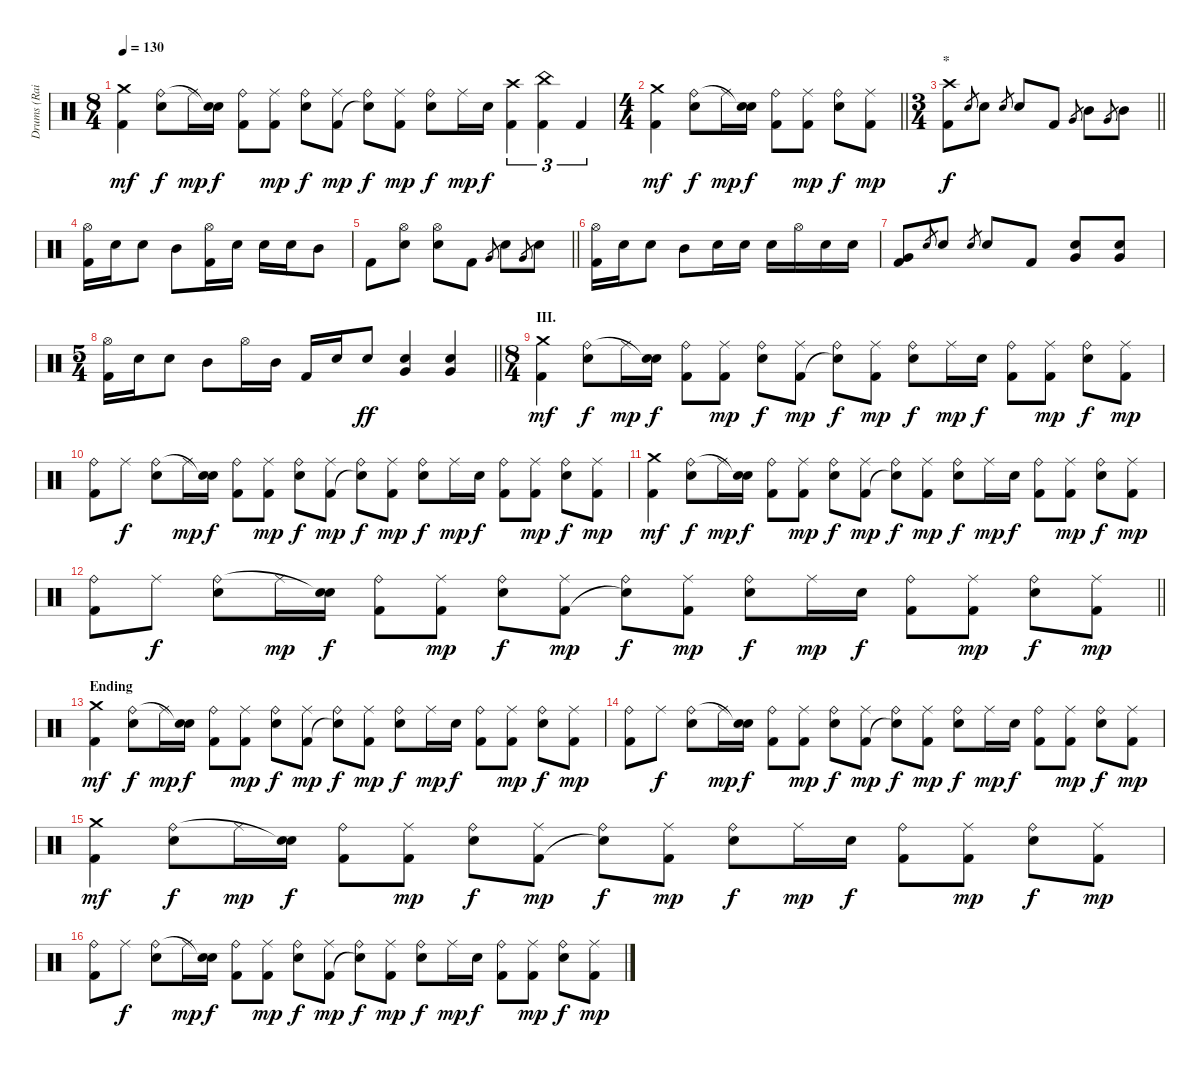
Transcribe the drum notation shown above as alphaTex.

\track ("Drums (Raimund)" "Drums (Rai") {instrument percussion}
\staff {score}
\articulation defaults
\ts (8 4)
\tempo 130
\clef neutral
\ks c
("Crash medium (hit)" "Kick (hit) 2").4{dy mf} ("Snare (hit) 2" "Ride (bell)").8{dy f} "Ride (middle)".16{dy mp} ("Snare (hit) 2" "Snare (hit)"{t}).16{dy f} ("Ride (bell)" "Kick (hit) 2").8 ("Ride (middle)" "Kick (hit) 2").8{dy mp} ("Snare (hit) 2" "Ride (bell)").8{dy f} ("Ride (middle)" "Kick (hit) 2").8{dy mp} ("Ride (bell)" "Snare (hit)"{t}).8{dy f} ("Ride (middle)" "Kick (hit) 2").8{dy mp} ("Snare (hit) 2" "Ride (bell)").8{dy f} "Ride (middle)".16{dy mp} "Snare (hit) 2".16{dy f} ("Crash high (hit)" "Kick (hit) 2").4{tu (3 2)} ("China (hit)" "Kick (hit) 2").4{tu (3 2)} "Kick (hit) 2".4{tu (3 2)} |
\ts (4 4)
\barLineRight lightlight
("Crash medium (hit)" "Kick (hit) 2").4{dy mf} ("Snare (hit) 2" "Ride (bell)").8{dy f} "Ride (middle)".16{dy mp} ("Snare (hit) 2" "Snare (hit)"{t}).16{dy f} ("Ride (bell)" "Kick (hit) 2").8 ("Ride (middle)" "Kick (hit) 2").8{dy mp} ("Snare (hit) 2" "Ride (bell)").8{dy f} ("Ride (middle)" "Kick (hit) 2").8{dy mp} |
\ts (3 4)
\section ("" "*")
\barLineRight lightlight
("Crash high (hit)" "Kick (hit) 2").8{dy f} "Snare (hit) 2".8{gr} "Snare (hit) 2".8 "Snare (hit) 2".8{gr} "Snare (hit) 2".8 "Kick (hit) 2".8 "Very Low Tom (hit)".8{gr} "Mid Tom (hit)".8 "Very Low Tom (hit)".8{gr} "Mid Tom (hit)".8 |
("Hi-Hat (open)" "Kick (hit) 2").16 "Snare (hit) 2".16 "Snare (hit) 2".8 "Mid Tom (hit)".8 ("Hi-Hat (open)" "Kick (hit) 2").16 "Snare (hit) 2".16 "Snare (hit) 2".16 "Snare (hit) 2".16 "Mid Tom (hit)".8 |
\barLineRight lightlight "Kick (hit) 2".8
("Snare (hit) 2" "Hi-Hat (open)").8 ("Snare (hit) 2" "Hi-Hat (open)").8 "Kick (hit) 2".8 "Very Low Tom (hit)".8{gr} "Snare (hit) 2".8 "Very Low Tom (hit)".8{gr} "Snare (hit) 2".8 |
("Hi-Hat (open)" "Kick (hit) 2").16 "Snare (hit) 2".16 "Snare (hit) 2".8 "Mid Tom (hit)".8 "Snare (hit) 2".16 "Snare (hit) 2".16 "Snare (hit) 2".16 "Hi-Hat (open)".16 "Snare (hit) 2".16 "Snare (hit) 2".16 |
("Very Low Tom (hit)" "Kick (hit) 2").8 "Snare (hit) 2".8{gr} "Snare (hit) 2".8 "Snare (hit) 2".8{gr} "Snare (hit) 2".8 "Kick (hit) 2".8 ("Snare (hit) 2" "Very Low Tom (hit)").8 ("Snare (hit) 2" "Very Low Tom (hit)").8 |
\ts (5 4)
\barLineRight lightlight
("Hi-Hat (open)" "Kick (hit) 2").16 "Snare (hit) 2".16 "Snare (hit) 2".8 "Mid Tom (hit)".8 "Hi-Hat (open)".16 "Mid Tom (hit)".16 "Kick (hit) 2".16 "Snare (hit) 2".16 "Snare (hit) 2".8{dy ff} ("Snare (hit) 2" "Very Low Tom (hit)").4 ("Snare (hit) 2" "Very Low Tom (hit)").4 |
\ts (8 4)
\section ("" "III.")
("Crash medium (hit)" "Kick (hit) 2").4{dy mf} ("Snare (hit) 2" "Ride (bell)").8{dy f} "Ride (middle)".16{dy mp} ("Snare (hit) 2" "Snare (hit)"{t}).16{dy f} ("Ride (bell)" "Kick (hit) 2").8 ("Ride (middle)" "Kick (hit) 2").8{dy mp} ("Snare (hit) 2" "Ride (bell)").8{dy f} ("Ride (middle)" "Kick (hit) 2").8{dy mp} ("Ride (bell)" "Snare (hit)"{t}).8{dy f} ("Ride (middle)" "Kick (hit) 2").8{dy mp} ("Snare (hit) 2" "Ride (bell)").8{dy f} "Ride (middle)".16{dy mp} "Snare (hit) 2".16{dy f} ("Ride (bell)" "Kick (hit) 2").8 ("Ride (middle)" "Kick (hit) 2").8{dy mp} ("Snare (hit) 2" "Ride (bell)").8{dy f} ("Ride (middle)" "Kick (hit) 2").8{dy mp} |
("Ride (bell)" "Kick (hit) 2").8 "Ride (middle)".8{dy f} ("Snare (hit) 2" "Ride (bell)").8 "Ride (middle)".16{dy mp} ("Snare (hit) 2" "Snare (hit)"{t}).16{dy f} ("Ride (bell)" "Kick (hit) 2").8 ("Ride (middle)" "Kick (hit) 2").8{dy mp} ("Snare (hit) 2" "Ride (bell)").8{dy f} ("Ride (middle)" "Kick (hit) 2").8{dy mp} ("Ride (bell)" "Snare (hit)"{t}).8{dy f} ("Ride (middle)" "Kick (hit) 2").8{dy mp} ("Snare (hit) 2" "Ride (bell)").8{dy f} "Ride (middle)".16{dy mp} "Snare (hit) 2".16{dy f} ("Ride (bell)" "Kick (hit) 2").8 ("Ride (middle)" "Kick (hit) 2").8{dy mp} ("Snare (hit) 2" "Ride (bell)").8{dy f} ("Ride (middle)" "Kick (hit) 2").8{dy mp} |
("Crash medium (hit)" "Kick (hit) 2").4{dy mf} ("Snare (hit) 2" "Ride (bell)").8{dy f} "Ride (middle)".16{dy mp} ("Snare (hit) 2" "Snare (hit)"{t}).16{dy f} ("Ride (bell)" "Kick (hit) 2").8 ("Ride (middle)" "Kick (hit) 2").8{dy mp} ("Snare (hit) 2" "Ride (bell)").8{dy f} ("Ride (middle)" "Kick (hit) 2").8{dy mp} ("Ride (bell)" "Snare (hit)"{t}).8{dy f} ("Ride (middle)" "Kick (hit) 2").8{dy mp} ("Snare (hit) 2" "Ride (bell)").8{dy f} "Ride (middle)".16{dy mp} "Snare (hit) 2".16{dy f} ("Ride (bell)" "Kick (hit) 2").8 ("Ride (middle)" "Kick (hit) 2").8{dy mp} ("Snare (hit) 2" "Ride (bell)").8{dy f} ("Ride (middle)" "Kick (hit) 2").8{dy mp} |
\barLineRight lightlight
("Ride (bell)" "Kick (hit) 2").8 "Ride (middle)".8{dy f} ("Snare (hit) 2" "Ride (bell)").8 "Ride (middle)".16{dy mp} ("Snare (hit) 2" "Snare (hit)"{t}).16{dy f} ("Ride (bell)" "Kick (hit) 2").8 ("Ride (middle)" "Kick (hit) 2").8{dy mp} ("Snare (hit) 2" "Ride (bell)").8{dy f} ("Ride (middle)" "Kick (hit) 2").8{dy mp} ("Ride (bell)" "Snare (hit)"{t}).8{dy f} ("Ride (middle)" "Kick (hit) 2").8{dy mp} ("Snare (hit) 2" "Ride (bell)").8{dy f} "Ride (middle)".16{dy mp} "Snare (hit) 2".16{dy f} ("Ride (bell)" "Kick (hit) 2").8 ("Ride (middle)" "Kick (hit) 2").8{dy mp} ("Snare (hit) 2" "Ride (bell)").8{dy f} ("Ride (middle)" "Kick (hit) 2").8{dy mp} |
\section ("" "Ending")
("Crash medium (hit)" "Kick (hit) 2").4{dy mf} ("Snare (hit) 2" "Ride (bell)").8{dy f} "Ride (middle)".16{dy mp} ("Snare (hit) 2" "Snare (hit)"{t}).16{dy f} ("Ride (bell)" "Kick (hit) 2").8 ("Ride (middle)" "Kick (hit) 2").8{dy mp} ("Snare (hit) 2" "Ride (bell)").8{dy f} ("Ride (middle)" "Kick (hit) 2").8{dy mp} ("Ride (bell)" "Snare (hit)"{t}).8{dy f} ("Ride (middle)" "Kick (hit) 2").8{dy mp} ("Snare (hit) 2" "Ride (bell)").8{dy f} "Ride (middle)".16{dy mp} "Snare (hit) 2".16{dy f} ("Ride (bell)" "Kick (hit) 2").8 ("Ride (middle)" "Kick (hit) 2").8{dy mp} ("Snare (hit) 2" "Ride (bell)").8{dy f} ("Ride (middle)" "Kick (hit) 2").8{dy mp} |
("Ride (bell)" "Kick (hit) 2").8 "Ride (middle)".8{dy f} ("Snare (hit) 2" "Ride (bell)").8 "Ride (middle)".16{dy mp} ("Snare (hit) 2" "Snare (hit)"{t}).16{dy f} ("Ride (bell)" "Kick (hit) 2").8 ("Ride (middle)" "Kick (hit) 2").8{dy mp} ("Snare (hit) 2" "Ride (bell)").8{dy f} ("Ride (middle)" "Kick (hit) 2").8{dy mp} ("Ride (bell)" "Snare (hit)"{t}).8{dy f} ("Ride (middle)" "Kick (hit) 2").8{dy mp} ("Snare (hit) 2" "Ride (bell)").8{dy f} "Ride (middle)".16{dy mp} "Snare (hit) 2".16{dy f} ("Ride (bell)" "Kick (hit) 2").8 ("Ride (middle)" "Kick (hit) 2").8{dy mp} ("Snare (hit) 2" "Ride (bell)").8{dy f} ("Ride (middle)" "Kick (hit) 2").8{dy mp} |
("Crash medium (hit)" "Kick (hit) 2").4{dy mf} ("Snare (hit) 2" "Ride (bell)").8{dy f} "Ride (middle)".16{dy mp} ("Snare (hit) 2" "Snare (hit)"{t}).16{dy f} ("Ride (bell)" "Kick (hit) 2").8 ("Ride (middle)" "Kick (hit) 2").8{dy mp} ("Snare (hit) 2" "Ride (bell)").8{dy f} ("Ride (middle)" "Kick (hit) 2").8{dy mp} ("Ride (bell)" "Snare (hit)"{t}).8{dy f} ("Ride (middle)" "Kick (hit) 2").8{dy mp} ("Snare (hit) 2" "Ride (bell)").8{dy f} "Ride (middle)".16{dy mp} "Snare (hit) 2".16{dy f} ("Ride (bell)" "Kick (hit) 2").8 ("Ride (middle)" "Kick (hit) 2").8{dy mp} ("Snare (hit) 2" "Ride (bell)").8{dy f} ("Ride (middle)" "Kick (hit) 2").8{dy mp} |
("Ride (bell)" "Kick (hit) 2").8 "Ride (middle)".8{dy f} ("Snare (hit) 2" "Ride (bell)").8 "Ride (middle)".16{dy mp} ("Snare (hit) 2" "Snare (hit)"{t}).16{dy f} ("Ride (bell)" "Kick (hit) 2").8 ("Ride (middle)" "Kick (hit) 2").8{dy mp} ("Snare (hit) 2" "Ride (bell)").8{dy f} ("Ride (middle)" "Kick (hit) 2").8{dy mp} ("Ride (bell)" "Snare (hit)"{t}).8{dy f} ("Ride (middle)" "Kick (hit) 2").8{dy mp} ("Snare (hit) 2" "Ride (bell)").8{dy f} "Ride (middle)".16{dy mp} "Snare (hit) 2".16{dy f} ("Ride (bell)" "Kick (hit) 2").8 ("Ride (middle)" "Kick (hit) 2").8{dy mp} ("Snare (hit) 2" "Ride (bell)").8{dy f} ("Ride (middle)" "Kick (hit) 2").8{dy mp}
